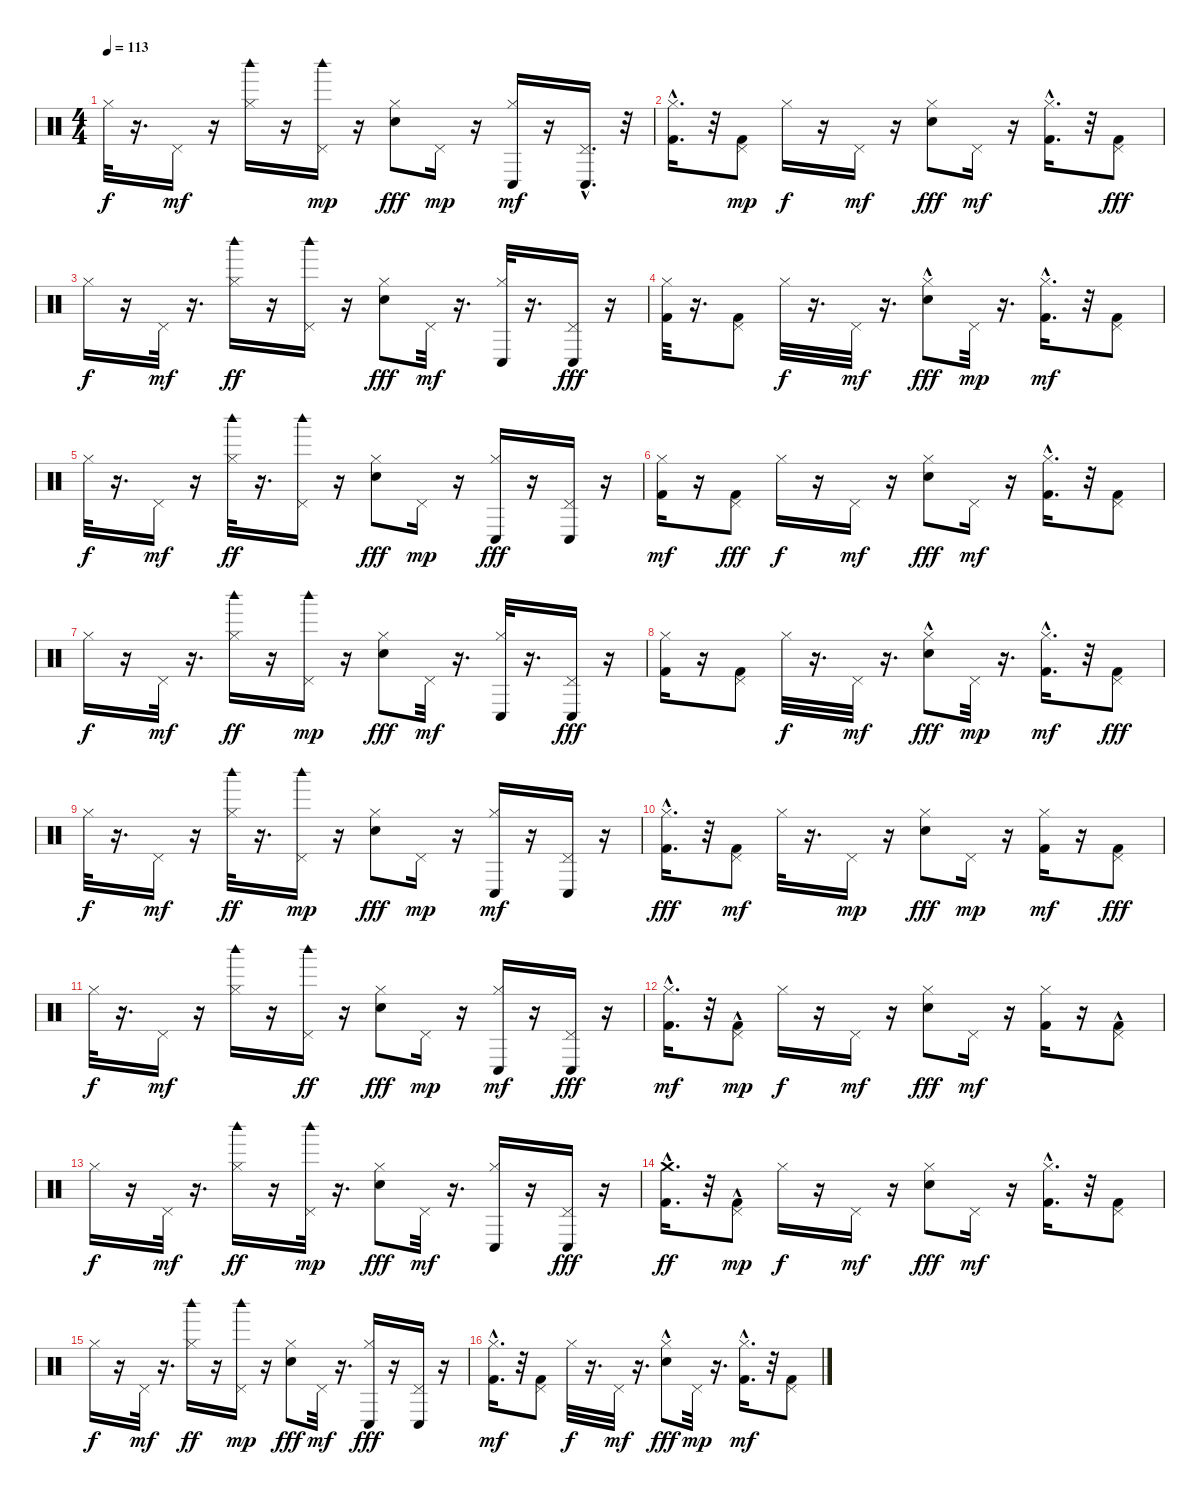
\track "" {instrument percussion}
\staff {score}
\articulation defaults
\ts (4 4)
\tempo 113
\clef neutral
\ks c "Hi-Hat (closed)".32{dy f}
r.16{d} "Pedal Hi-Hat (hit)".16{dy mf} r.16 ("Woodblock high (hit)" "Hi-Hat (closed)").16 r.16 ("Woodblock high (hit)" "Pedal Hi-Hat (hit)").16{dy mp} r.16 ("Hi-Hat (closed)" "Snare (hit) 2").8{dy fff} "Pedal Hi-Hat (hit)".16{dy mp} r.16 ("Conga low (hit)" "Hi-Hat (closed)").16{dy mf} r.16 ("Conga low (hit)"{hac} "Pedal Hi-Hat (hit)").16{d} r.32 |
("Kick (hit) 2"{hac} "Hi-Hat (closed)").16{d} r.32 ("Kick (hit) 2" "Pedal Hi-Hat (hit)").8{dy mp} "Hi-Hat (closed)".16{dy f} r.16 "Pedal Hi-Hat (hit)".16{dy mf} r.16 ("Hi-Hat (closed)" "Snare (hit) 2").8{dy fff} "Pedal Hi-Hat (hit)".16{dy mf} r.16 ("Kick (hit) 2"{hac} "Hi-Hat (closed)").16{d} r.32 ("Pedal Hi-Hat (hit)" "Kick (hit) 2").8{dy fff} |
"Hi-Hat (closed)".16{dy f} r.16 "Pedal Hi-Hat (hit)".32{dy mf} r.16{d} ("Hi-Hat (closed)" "Woodblock high (hit)").16{dy ff} r.16 ("Pedal Hi-Hat (hit)" "Woodblock high (hit)").16 r.16 ("Hi-Hat (closed)" "Snare (hit) 2").8{dy fff} "Pedal Hi-Hat (hit)".32{dy mf} r.16{d} ("Conga low (hit)" "Hi-Hat (closed)").32 r.16{d} ("Pedal Hi-Hat (hit)" "Conga low (hit)").16{dy fff} r.16 |
("Hi-Hat (closed)" "Kick (hit) 2").32 r.16{d} ("Pedal Hi-Hat (hit)" "Kick (hit) 2").8 "Hi-Hat (closed)".32{dy f} r.16{d} "Pedal Hi-Hat (hit)".32{dy mf} r.16{d} ("Hi-Hat (closed)" "Snare (hit) 2"{hac}).8{dy fff} "Pedal Hi-Hat (hit)".32{dy mp} r.16{d} ("Kick (hit) 2"{hac} "Hi-Hat (closed)").16{d dy mf} r.32 ("Kick (hit) 2" "Pedal Hi-Hat (hit)").8 |
"Hi-Hat (closed)".32{dy f} r.16{d} "Pedal Hi-Hat (hit)".16{dy mf} r.16 ("Hi-Hat (closed)" "Woodblock high (hit)").32{dy ff} r.16{d} ("Pedal Hi-Hat (hit)" "Woodblock high (hit)").16 r.16 ("Hi-Hat (closed)" "Snare (hit) 2").8{dy fff} "Pedal Hi-Hat (hit)".16{dy mp} r.16 ("Hi-Hat (closed)" "Conga low (hit)").16{dy fff} r.16 ("Pedal Hi-Hat (hit)" "Conga low (hit)").16 r.16 |
("Kick (hit) 2" "Hi-Hat (closed)").16{dy mf} r.16 ("Pedal Hi-Hat (hit)" "Kick (hit) 2").8{dy fff} "Hi-Hat (closed)".16{dy f} r.16 "Pedal Hi-Hat (hit)".16{dy mf} r.16 ("Hi-Hat (closed)" "Snare (hit) 2").8{dy fff} "Pedal Hi-Hat (hit)".16{dy mf} r.16 ("Kick (hit) 2"{hac} "Hi-Hat (closed)").16{d} r.32 ("Kick (hit) 2" "Pedal Hi-Hat (hit)").8 |
"Hi-Hat (closed)".16{dy f} r.16 "Pedal Hi-Hat (hit)".32{dy mf} r.16{d} ("Woodblock high (hit)" "Hi-Hat (closed)").16{dy ff} r.16 ("Woodblock high (hit)" "Pedal Hi-Hat (hit)").16{dy mp} r.16 ("Hi-Hat (closed)" "Snare (hit) 2").8{dy fff} "Pedal Hi-Hat (hit)".32{dy mf} r.16{d} ("Conga low (hit)" "Hi-Hat (closed)").32 r.16{d} ("Pedal Hi-Hat (hit)" "Conga low (hit)").16{dy fff} r.16 |
("Hi-Hat (closed)" "Kick (hit) 2").16 r.16 ("Pedal Hi-Hat (hit)" "Kick (hit) 2").8 "Hi-Hat (closed)".32{dy f} r.16{d} "Pedal Hi-Hat (hit)".32{dy mf} r.16{d} ("Hi-Hat (closed)" "Snare (hit) 2"{hac}).8{dy fff} "Pedal Hi-Hat (hit)".32{dy mp} r.16{d} ("Kick (hit) 2"{hac} "Hi-Hat (closed)").16{d dy mf} r.32 ("Pedal Hi-Hat (hit)" "Kick (hit) 2").8{dy fff} |
"Hi-Hat (closed)".32{dy f} r.16{d} "Pedal Hi-Hat (hit)".16{dy mf} r.16 ("Hi-Hat (closed)" "Woodblock high (hit)").32{dy ff} r.16{d} ("Pedal Hi-Hat (hit)" "Woodblock high (hit)").16{dy mp} r.16 ("Hi-Hat (closed)" "Snare (hit) 2").8{dy fff} "Pedal Hi-Hat (hit)".16{dy mp} r.16 ("Conga low (hit)" "Hi-Hat (closed)").16{dy mf} r.16 ("Conga low (hit)" "Pedal Hi-Hat (hit)").16 r.16 |
("Kick (hit) 2"{hac} "Hi-Hat (closed)").16{d dy fff} r.32 ("Kick (hit) 2" "Pedal Hi-Hat (hit)").8{dy mf} "Hi-Hat (closed)".32 r.16{d} "Pedal Hi-Hat (hit)".16{dy mp} r.16 ("Hi-Hat (closed)" "Snare (hit) 2").8{dy fff} "Pedal Hi-Hat (hit)".16{dy mp} r.16 ("Kick (hit) 2" "Hi-Hat (closed)").16{dy mf} r.16 ("Pedal Hi-Hat (hit)" "Kick (hit) 2").8{dy fff} |
"Hi-Hat (closed)".32{dy f} r.16{d} "Pedal Hi-Hat (hit)".16{dy mf} r.16 ("Woodblock high (hit)" "Hi-Hat (closed)").16 r.16 ("Pedal Hi-Hat (hit)" "Woodblock high (hit)").16{dy ff} r.16 ("Hi-Hat (closed)" "Snare (hit) 2").8{dy fff} "Pedal Hi-Hat (hit)".16{dy mp} r.16 ("Conga low (hit)" "Hi-Hat (closed)").16{dy mf} r.16 ("Pedal Hi-Hat (hit)" "Conga low (hit)").16{dy fff} r.16 |
("Kick (hit) 2"{hac} "Hi-Hat (closed)").16{d dy mf} r.32 ("Kick (hit) 2"{hac} "Pedal Hi-Hat (hit)").8{dy mp} "Hi-Hat (closed)".16{dy f} r.16 "Pedal Hi-Hat (hit)".16{dy mf} r.16 ("Hi-Hat (closed)" "Snare (hit) 2").8{dy fff} "Pedal Hi-Hat (hit)".16{dy mf} r.16 ("Kick (hit) 2" "Hi-Hat (closed)").16 r.16 ("Kick (hit) 2"{hac} "Pedal Hi-Hat (hit)").8 |
"Hi-Hat (closed)".16{dy f} r.16 "Pedal Hi-Hat (hit)".32{dy mf} r.16{d} ("Hi-Hat (closed)" "Woodblock high (hit)").16{dy ff} r.16 ("Pedal Hi-Hat (hit)" "Woodblock high (hit)").32{dy mp} r.16{d} ("Hi-Hat (closed)" "Snare (hit) 2").8{dy fff} "Pedal Hi-Hat (hit)".32{dy mf} r.16{d} ("Conga low (hit)" "Hi-Hat (closed)").16 r.16 ("Pedal Hi-Hat (hit)" "Conga low (hit)").16{dy fff} r.16 |
("Kick (hit) 2"{hac} "Crash medium (hit)").16{d dy ff} r.32 ("Kick (hit) 2"{hac} "Pedal Hi-Hat (hit)").8{dy mp} "Hi-Hat (closed)".16{dy f} r.16 "Pedal Hi-Hat (hit)".16{dy mf} r.16 ("Hi-Hat (closed)" "Snare (hit) 2").8{dy fff} "Pedal Hi-Hat (hit)".16{dy mf} r.16 ("Kick (hit) 2"{hac} "Hi-Hat (closed)").16{d} r.32 ("Kick (hit) 2" "Pedal Hi-Hat (hit)").8 |
"Hi-Hat (closed)".16{dy f} r.16 "Pedal Hi-Hat (hit)".32{dy mf} r.16{d} ("Woodblock high (hit)" "Hi-Hat (closed)").16{dy ff} r.16 ("Woodblock high (hit)" "Pedal Hi-Hat (hit)").16{dy mp} r.16 ("Hi-Hat (closed)" "Snare (hit) 2").8{dy fff} "Pedal Hi-Hat (hit)".32{dy mf} r.16{d} ("Hi-Hat (closed)" "Conga low (hit)").16{dy fff} r.16 ("Pedal Hi-Hat (hit)" "Conga low (hit)").16 r.16 |
("Kick (hit) 2"{hac} "Hi-Hat (closed)").16{d dy mf} r.32 ("Kick (hit) 2" "Pedal Hi-Hat (hit)").8 "Hi-Hat (closed)".32{dy f} r.16{d} "Pedal Hi-Hat (hit)".32{dy mf} r.16{d} ("Hi-Hat (closed)" "Snare (hit) 2"{hac}).8{dy fff} "Pedal Hi-Hat (hit)".32{dy mp} r.16{d} ("Kick (hit) 2"{hac} "Hi-Hat (closed)").16{d dy mf} r.32 ("Kick (hit) 2" "Pedal Hi-Hat (hit)").8
